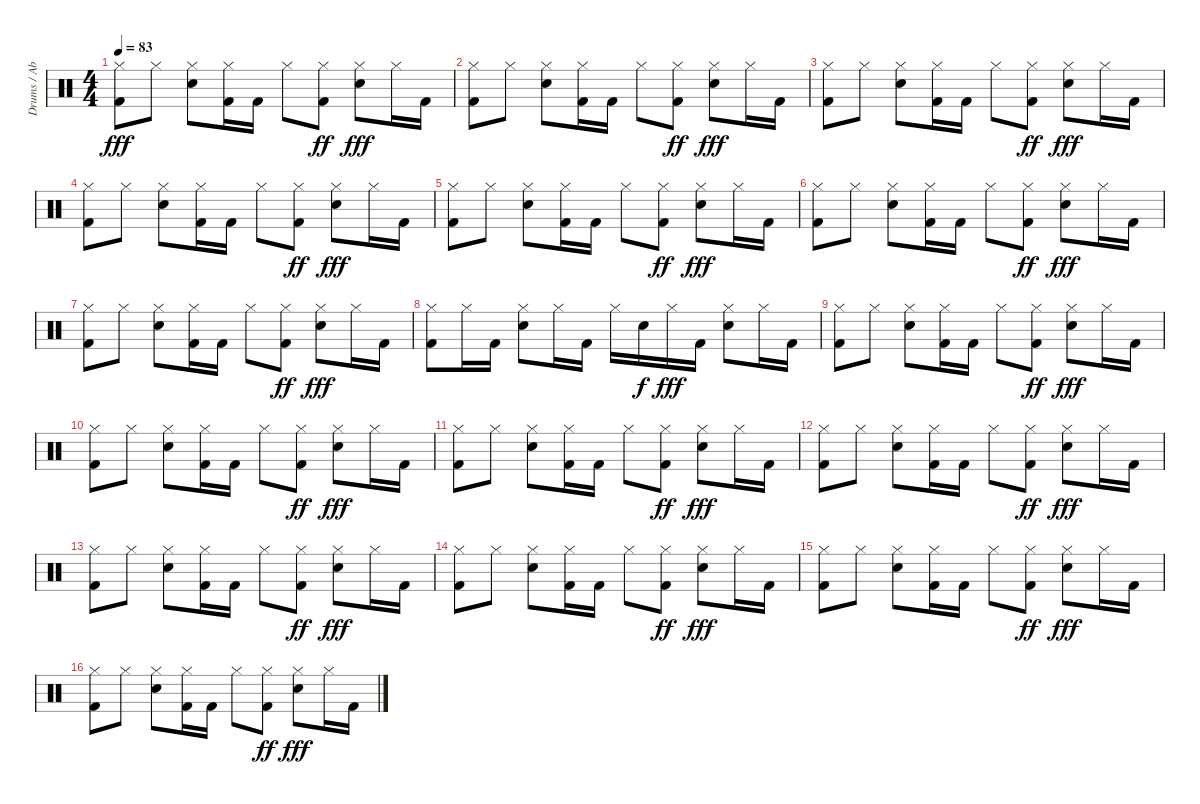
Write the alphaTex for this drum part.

\track ("Drums / Abe Cunningham" "Drums / Ab") {instrument percussion}
\staff {score}
\articulation defaults
\ts (4 4)
\tempo 83
\clef neutral
\ks c
("Hi-Hat (closed)" "Kick (hit) 2").8{dy fff} "Hi-Hat (closed)".8 ("Hi-Hat (closed)" "Electric Snare (hit)").8 ("Hi-Hat (closed)" "Kick (hit) 2").16 "Kick (hit) 2".16 "Hi-Hat (closed)".8 ("Hi-Hat (closed)" "Kick (hit) 2").8{dy ff} ("Hi-Hat (closed)" "Electric Snare (hit)").8{dy fff} "Hi-Hat (closed)".16 "Kick (hit) 2".16 |
("Hi-Hat (closed)" "Kick (hit) 2").8 "Hi-Hat (closed)".8 ("Hi-Hat (closed)" "Electric Snare (hit)").8 ("Hi-Hat (closed)" "Kick (hit) 2").16 "Kick (hit) 2".16 "Hi-Hat (closed)".8 ("Hi-Hat (closed)" "Kick (hit) 2").8{dy ff} ("Hi-Hat (closed)" "Electric Snare (hit)").8{dy fff} "Hi-Hat (closed)".16 "Kick (hit) 2".16 |
("Hi-Hat (closed)" "Kick (hit) 2").8 "Hi-Hat (closed)".8 ("Hi-Hat (closed)" "Electric Snare (hit)").8 ("Hi-Hat (closed)" "Kick (hit) 2").16 "Kick (hit) 2".16 "Hi-Hat (closed)".8 ("Hi-Hat (closed)" "Kick (hit) 2").8{dy ff} ("Hi-Hat (closed)" "Electric Snare (hit)").8{dy fff} "Hi-Hat (closed)".16 "Kick (hit) 2".16 |
("Hi-Hat (closed)" "Kick (hit) 2").8 "Hi-Hat (closed)".8 ("Hi-Hat (closed)" "Electric Snare (hit)").8 ("Hi-Hat (closed)" "Kick (hit) 2").16 "Kick (hit) 2".16 "Hi-Hat (closed)".8 ("Hi-Hat (closed)" "Kick (hit) 2").8{dy ff} ("Hi-Hat (closed)" "Electric Snare (hit)").8{dy fff} "Hi-Hat (closed)".16 "Kick (hit) 2".16 |
("Hi-Hat (closed)" "Kick (hit) 2").8 "Hi-Hat (closed)".8 ("Hi-Hat (closed)" "Electric Snare (hit)").8 ("Hi-Hat (closed)" "Kick (hit) 2").16 "Kick (hit) 2".16 "Hi-Hat (closed)".8 ("Hi-Hat (closed)" "Kick (hit) 2").8{dy ff} ("Hi-Hat (closed)" "Electric Snare (hit)").8{dy fff} "Hi-Hat (closed)".16 "Kick (hit) 2".16 |
("Hi-Hat (closed)" "Kick (hit) 2").8 "Hi-Hat (closed)".8 ("Hi-Hat (closed)" "Electric Snare (hit)").8 ("Hi-Hat (closed)" "Kick (hit) 2").16 "Kick (hit) 2".16 "Hi-Hat (closed)".8 ("Hi-Hat (closed)" "Kick (hit) 2").8{dy ff} ("Hi-Hat (closed)" "Electric Snare (hit)").8{dy fff} "Hi-Hat (closed)".16 "Kick (hit) 2".16 |
("Hi-Hat (closed)" "Kick (hit) 2").8 "Hi-Hat (closed)".8 ("Hi-Hat (closed)" "Electric Snare (hit)").8 ("Hi-Hat (closed)" "Kick (hit) 2").16 "Kick (hit) 2".16 "Hi-Hat (closed)".8 ("Hi-Hat (closed)" "Kick (hit) 2").8{dy ff} ("Hi-Hat (closed)" "Electric Snare (hit)").8{dy fff} "Hi-Hat (closed)".16 "Kick (hit) 2".16 |
("Hi-Hat (closed)" "Kick (hit) 2").8 "Hi-Hat (closed)".16 "Kick (hit) 2".16 ("Hi-Hat (closed)" "Electric Snare (hit)").8 "Hi-Hat (closed)".16 "Kick (hit) 2".16 "Hi-Hat (closed)".16 "Electric Snare (hit)".16{dy f} "Hi-Hat (closed)".16{dy fff} "Kick (hit) 2".16 ("Hi-Hat (closed)" "Electric Snare (hit)").8 "Hi-Hat (closed)".16 "Kick (hit) 2".16 |
("Hi-Hat (closed)" "Kick (hit) 2").8 "Hi-Hat (closed)".8 ("Hi-Hat (closed)" "Electric Snare (hit)").8 ("Hi-Hat (closed)" "Kick (hit) 2").16 "Kick (hit) 2".16 "Hi-Hat (closed)".8 ("Hi-Hat (closed)" "Kick (hit) 2").8{dy ff} ("Hi-Hat (closed)" "Electric Snare (hit)").8{dy fff} "Hi-Hat (closed)".16 "Kick (hit) 2".16 |
("Hi-Hat (closed)" "Kick (hit) 2").8 "Hi-Hat (closed)".8 ("Hi-Hat (closed)" "Electric Snare (hit)").8 ("Hi-Hat (closed)" "Kick (hit) 2").16 "Kick (hit) 2".16 "Hi-Hat (closed)".8 ("Hi-Hat (closed)" "Kick (hit) 2").8{dy ff} ("Hi-Hat (closed)" "Electric Snare (hit)").8{dy fff} "Hi-Hat (closed)".16 "Kick (hit) 2".16 |
("Hi-Hat (closed)" "Kick (hit) 2").8 "Hi-Hat (closed)".8 ("Hi-Hat (closed)" "Electric Snare (hit)").8 ("Hi-Hat (closed)" "Kick (hit) 2").16 "Kick (hit) 2".16 "Hi-Hat (closed)".8 ("Hi-Hat (closed)" "Kick (hit) 2").8{dy ff} ("Hi-Hat (closed)" "Electric Snare (hit)").8{dy fff} "Hi-Hat (closed)".16 "Kick (hit) 2".16 |
("Hi-Hat (closed)" "Kick (hit) 2").8 "Hi-Hat (closed)".8 ("Hi-Hat (closed)" "Electric Snare (hit)").8 ("Hi-Hat (closed)" "Kick (hit) 2").16 "Kick (hit) 2".16 "Hi-Hat (closed)".8 ("Hi-Hat (closed)" "Kick (hit) 2").8{dy ff} ("Hi-Hat (closed)" "Electric Snare (hit)").8{dy fff} "Hi-Hat (closed)".16 "Kick (hit) 2".16 |
("Hi-Hat (closed)" "Kick (hit) 2").8 "Hi-Hat (closed)".8 ("Hi-Hat (closed)" "Electric Snare (hit)").8 ("Hi-Hat (closed)" "Kick (hit) 2").16 "Kick (hit) 2".16 "Hi-Hat (closed)".8 ("Hi-Hat (closed)" "Kick (hit) 2").8{dy ff} ("Hi-Hat (closed)" "Electric Snare (hit)").8{dy fff} "Hi-Hat (closed)".16 "Kick (hit) 2".16 |
("Hi-Hat (closed)" "Kick (hit) 2").8 "Hi-Hat (closed)".8 ("Hi-Hat (closed)" "Electric Snare (hit)").8 ("Hi-Hat (closed)" "Kick (hit) 2").16 "Kick (hit) 2".16 "Hi-Hat (closed)".8 ("Hi-Hat (closed)" "Kick (hit) 2").8{dy ff} ("Hi-Hat (closed)" "Electric Snare (hit)").8{dy fff} "Hi-Hat (closed)".16 "Kick (hit) 2".16 |
("Hi-Hat (closed)" "Kick (hit) 2").8 "Hi-Hat (closed)".8 ("Hi-Hat (closed)" "Electric Snare (hit)").8 ("Hi-Hat (closed)" "Kick (hit) 2").16 "Kick (hit) 2".16 "Hi-Hat (closed)".8 ("Hi-Hat (closed)" "Kick (hit) 2").8{dy ff} ("Hi-Hat (closed)" "Electric Snare (hit)").8{dy fff} "Hi-Hat (closed)".16 "Kick (hit) 2".16 |
("Hi-Hat (closed)" "Kick (hit) 2").8 "Hi-Hat (closed)".8 ("Hi-Hat (closed)" "Electric Snare (hit)").8 ("Hi-Hat (closed)" "Kick (hit) 2").16 "Kick (hit) 2".16 "Hi-Hat (closed)".8 ("Hi-Hat (closed)" "Kick (hit) 2").8{dy ff} ("Hi-Hat (closed)" "Electric Snare (hit)").8{dy fff} "Hi-Hat (closed)".16 "Kick (hit) 2".16
